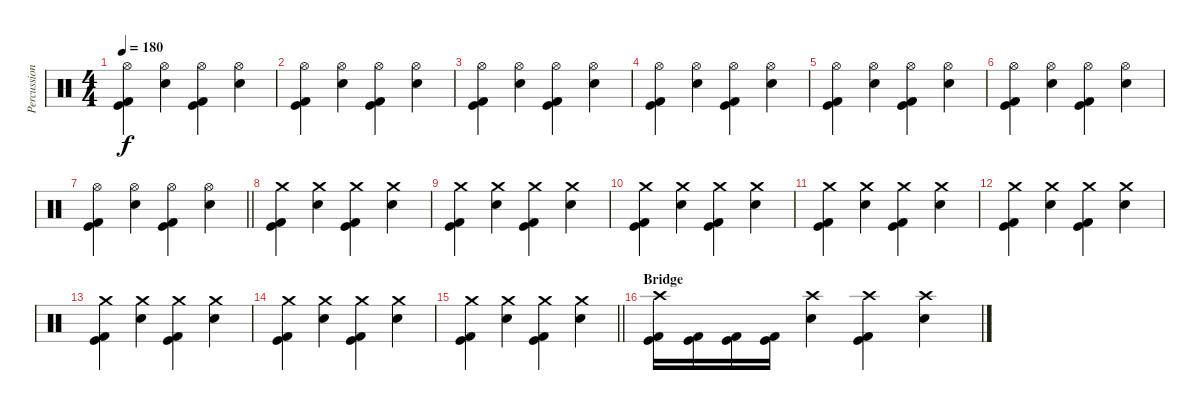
\track ("Percussion" "Percussion") {instrument percussion}
\staff {score}
\articulation defaults
\ts (4 4)
\tempo 180
\clef neutral
\ks c
("Hi-Hat (open)" "Kick (hit) 2" "Kick (hit)").4{dy f} ("Hi-Hat (open)" "Electric Snare (hit)").4 ("Hi-Hat (open)" "Kick (hit) 2" "Kick (hit)").4 ("Hi-Hat (open)" "Electric Snare (hit)").4 |
("Hi-Hat (open)" "Kick (hit) 2" "Kick (hit)").4 ("Hi-Hat (open)" "Electric Snare (hit)").4 ("Hi-Hat (open)" "Kick (hit) 2" "Kick (hit)").4 ("Hi-Hat (open)" "Electric Snare (hit)").4 |
("Hi-Hat (open)" "Kick (hit) 2" "Kick (hit)").4 ("Hi-Hat (open)" "Electric Snare (hit)").4 ("Hi-Hat (open)" "Kick (hit) 2" "Kick (hit)").4 ("Hi-Hat (open)" "Electric Snare (hit)").4 |
("Hi-Hat (open)" "Kick (hit) 2" "Kick (hit)").4 ("Hi-Hat (open)" "Electric Snare (hit)").4 ("Hi-Hat (open)" "Kick (hit) 2" "Kick (hit)").4 ("Hi-Hat (open)" "Electric Snare (hit)").4 |
("Hi-Hat (open)" "Kick (hit) 2" "Kick (hit)").4 ("Hi-Hat (open)" "Electric Snare (hit)").4 ("Hi-Hat (open)" "Kick (hit) 2" "Kick (hit)").4 ("Hi-Hat (open)" "Electric Snare (hit)").4 |
("Hi-Hat (open)" "Kick (hit) 2" "Kick (hit)").4 ("Hi-Hat (open)" "Electric Snare (hit)").4 ("Hi-Hat (open)" "Kick (hit) 2" "Kick (hit)").4 ("Hi-Hat (open)" "Electric Snare (hit)").4 |
\barLineRight lightlight
("Hi-Hat (open)" "Kick (hit) 2" "Kick (hit)").4 ("Hi-Hat (open)" "Electric Snare (hit)").4 ("Hi-Hat (open)" "Kick (hit) 2" "Kick (hit)").4 ("Hi-Hat (open)" "Electric Snare (hit)").4 |
("Crash medium (hit)" "Kick (hit) 2" "Kick (hit)").4 ("Crash medium (hit)" "Electric Snare (hit)").4 ("Crash medium (hit)" "Kick (hit) 2" "Kick (hit)").4 ("Crash medium (hit)" "Electric Snare (hit)").4 |
("Crash medium (hit)" "Kick (hit) 2" "Kick (hit)").4 ("Crash medium (hit)" "Electric Snare (hit)").4 ("Crash medium (hit)" "Kick (hit) 2" "Kick (hit)").4 ("Crash medium (hit)" "Electric Snare (hit)").4 |
("Crash medium (hit)" "Kick (hit) 2" "Kick (hit)").4 ("Crash medium (hit)" "Electric Snare (hit)").4 ("Crash medium (hit)" "Kick (hit) 2" "Kick (hit)").4 ("Crash medium (hit)" "Electric Snare (hit)").4 |
("Crash medium (hit)" "Kick (hit) 2" "Kick (hit)").4 ("Crash medium (hit)" "Electric Snare (hit)").4 ("Crash medium (hit)" "Kick (hit) 2" "Kick (hit)").4 ("Crash medium (hit)" "Electric Snare (hit)").4 |
("Crash medium (hit)" "Kick (hit) 2" "Kick (hit)").4 ("Crash medium (hit)" "Electric Snare (hit)").4 ("Crash medium (hit)" "Kick (hit) 2" "Kick (hit)").4 ("Crash medium (hit)" "Electric Snare (hit)").4 |
("Crash medium (hit)" "Kick (hit) 2" "Kick (hit)").4 ("Crash medium (hit)" "Electric Snare (hit)").4 ("Crash medium (hit)" "Kick (hit) 2" "Kick (hit)").4 ("Crash medium (hit)" "Electric Snare (hit)").4 |
("Crash medium (hit)" "Kick (hit) 2" "Kick (hit)").4 ("Crash medium (hit)" "Electric Snare (hit)").4 ("Crash medium (hit)" "Kick (hit) 2" "Kick (hit)").4 ("Crash medium (hit)" "Electric Snare (hit)").4 |
\barLineRight lightlight
("Crash medium (hit)" "Kick (hit) 2" "Kick (hit)").4 ("Crash medium (hit)" "Electric Snare (hit)").4 ("Crash medium (hit)" "Kick (hit) 2" "Kick (hit)").4 ("Crash medium (hit)" "Electric Snare (hit)").4 |
\section ("" "Bridge")
("Crash high (hit)" "Kick (hit) 2" "Kick (hit)").16 ("Kick (hit) 2" "Kick (hit)").16 ("Kick (hit) 2" "Kick (hit)").16 ("Kick (hit) 2" "Kick (hit)").16 ("Crash high (hit)" "Electric Snare (hit)").4 ("Crash high (hit)" "Kick (hit) 2" "Kick (hit)").4 ("Crash high (hit)" "Electric Snare (hit)").4
